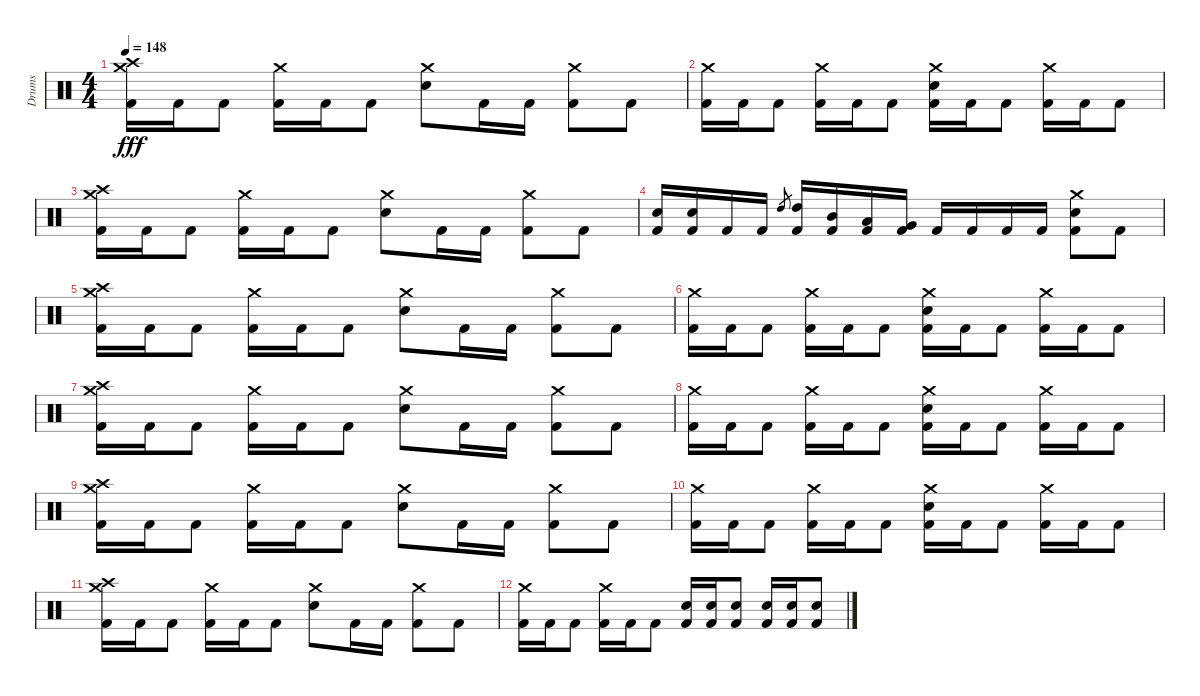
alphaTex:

\track ("Drums" "Drums") {instrument percussion}
\staff {score}
\articulation defaults
\ts (4 4)
\tempo 148
\clef neutral
\ks c
("Crash medium (hit)" "Crash high (hit)" "Kick (hit) 2").16{dy fff} "Kick (hit) 2".16 "Kick (hit) 2".8 ("Crash medium (hit)" "Kick (hit) 2").16 "Kick (hit) 2".16 "Kick (hit) 2".8 ("Crash medium (hit)" "Electric Snare (hit)").8 "Kick (hit) 2".16 "Kick (hit) 2".16 ("Crash medium (hit)" "Kick (hit) 2").8 "Kick (hit) 2".8 |
("Crash medium (hit)" "Kick (hit) 2").16 "Kick (hit) 2".16 "Kick (hit) 2".8 ("Crash medium (hit)" "Kick (hit) 2").16 "Kick (hit) 2".16 "Kick (hit) 2".8 ("Crash medium (hit)" "Electric Snare (hit)" "Kick (hit) 2").16 "Kick (hit) 2".16 "Kick (hit) 2".8 ("Crash medium (hit)" "Kick (hit) 2").16 "Kick (hit) 2".16 "Kick (hit) 2".8 |
("Crash medium (hit)" "Crash high (hit)" "Kick (hit) 2").16 "Kick (hit) 2".16 "Kick (hit) 2".8 ("Crash medium (hit)" "Kick (hit) 2").16 "Kick (hit) 2".16 "Kick (hit) 2".8 ("Crash medium (hit)" "Electric Snare (hit)").8 "Kick (hit) 2".16 "Kick (hit) 2".16 ("Crash medium (hit)" "Kick (hit) 2").8 "Kick (hit) 2".8 |
("Electric Snare (hit)" "Kick (hit) 2").16 ("Electric Snare (hit)" "Kick (hit) 2").16 "Kick (hit) 2".16 "Kick (hit) 2".16 "High Tom (hit)".8{gr} ("High Tom (hit)" "Kick (hit) 2").16 ("Mid Tom (hit)" "Kick (hit) 2").16 ("Low Tom (hit)" "Kick (hit) 2").16 ("Very Low Tom (hit)" "Kick (hit) 2").16 "Kick (hit) 2".16 "Kick (hit) 2".16 "Kick (hit) 2".16 "Kick (hit) 2".16 ("Crash medium (hit)" "Electric Snare (hit)" "Kick (hit) 2").8 "Kick (hit) 2".8 |
("Crash medium (hit)" "Crash high (hit)" "Kick (hit) 2").16 "Kick (hit) 2".16 "Kick (hit) 2".8 ("Crash medium (hit)" "Kick (hit) 2").16 "Kick (hit) 2".16 "Kick (hit) 2".8 ("Crash medium (hit)" "Electric Snare (hit)").8 "Kick (hit) 2".16 "Kick (hit) 2".16 ("Crash medium (hit)" "Kick (hit) 2").8 "Kick (hit) 2".8 |
("Crash medium (hit)" "Kick (hit) 2").16 "Kick (hit) 2".16 "Kick (hit) 2".8 ("Crash medium (hit)" "Kick (hit) 2").16 "Kick (hit) 2".16 "Kick (hit) 2".8 ("Crash medium (hit)" "Electric Snare (hit)" "Kick (hit) 2").16 "Kick (hit) 2".16 "Kick (hit) 2".8 ("Crash medium (hit)" "Kick (hit) 2").16 "Kick (hit) 2".16 "Kick (hit) 2".8 |
("Crash medium (hit)" "Crash high (hit)" "Kick (hit) 2").16 "Kick (hit) 2".16 "Kick (hit) 2".8 ("Crash medium (hit)" "Kick (hit) 2").16 "Kick (hit) 2".16 "Kick (hit) 2".8 ("Crash medium (hit)" "Electric Snare (hit)").8 "Kick (hit) 2".16 "Kick (hit) 2".16 ("Crash medium (hit)" "Kick (hit) 2").8 "Kick (hit) 2".8 |
("Crash medium (hit)" "Kick (hit) 2").16 "Kick (hit) 2".16 "Kick (hit) 2".8 ("Crash medium (hit)" "Kick (hit) 2").16 "Kick (hit) 2".16 "Kick (hit) 2".8 ("Crash medium (hit)" "Electric Snare (hit)" "Kick (hit) 2").16 "Kick (hit) 2".16 "Kick (hit) 2".8 ("Crash medium (hit)" "Kick (hit) 2").16 "Kick (hit) 2".16 "Kick (hit) 2".8 |
("Crash medium (hit)" "Crash high (hit)" "Kick (hit) 2").16 "Kick (hit) 2".16 "Kick (hit) 2".8 ("Crash medium (hit)" "Kick (hit) 2").16 "Kick (hit) 2".16 "Kick (hit) 2".8 ("Crash medium (hit)" "Electric Snare (hit)").8 "Kick (hit) 2".16 "Kick (hit) 2".16 ("Crash medium (hit)" "Kick (hit) 2").8 "Kick (hit) 2".8 |
("Crash medium (hit)" "Kick (hit) 2").16 "Kick (hit) 2".16 "Kick (hit) 2".8 ("Crash medium (hit)" "Kick (hit) 2").16 "Kick (hit) 2".16 "Kick (hit) 2".8 ("Crash medium (hit)" "Electric Snare (hit)" "Kick (hit) 2").16 "Kick (hit) 2".16 "Kick (hit) 2".8 ("Crash medium (hit)" "Kick (hit) 2").16 "Kick (hit) 2".16 "Kick (hit) 2".8 |
("Crash medium (hit)" "Crash high (hit)" "Kick (hit) 2").16 "Kick (hit) 2".16 "Kick (hit) 2".8 ("Crash medium (hit)" "Kick (hit) 2").16 "Kick (hit) 2".16 "Kick (hit) 2".8 ("Crash medium (hit)" "Electric Snare (hit)").8 "Kick (hit) 2".16 "Kick (hit) 2".16 ("Crash medium (hit)" "Kick (hit) 2").8 "Kick (hit) 2".8 |
("Crash medium (hit)" "Kick (hit) 2").16 "Kick (hit) 2".16 "Kick (hit) 2".8 ("Crash medium (hit)" "Kick (hit) 2").16 "Kick (hit) 2".16 "Kick (hit) 2".8 ("Electric Snare (hit)" "Kick (hit) 2").16 ("Electric Snare (hit)" "Kick (hit) 2").16 ("Electric Snare (hit)" "Kick (hit) 2").8 ("Electric Snare (hit)" "Kick (hit) 2").16 ("Electric Snare (hit)" "Kick (hit) 2").16 ("Electric Snare (hit)" "Kick (hit) 2").8
